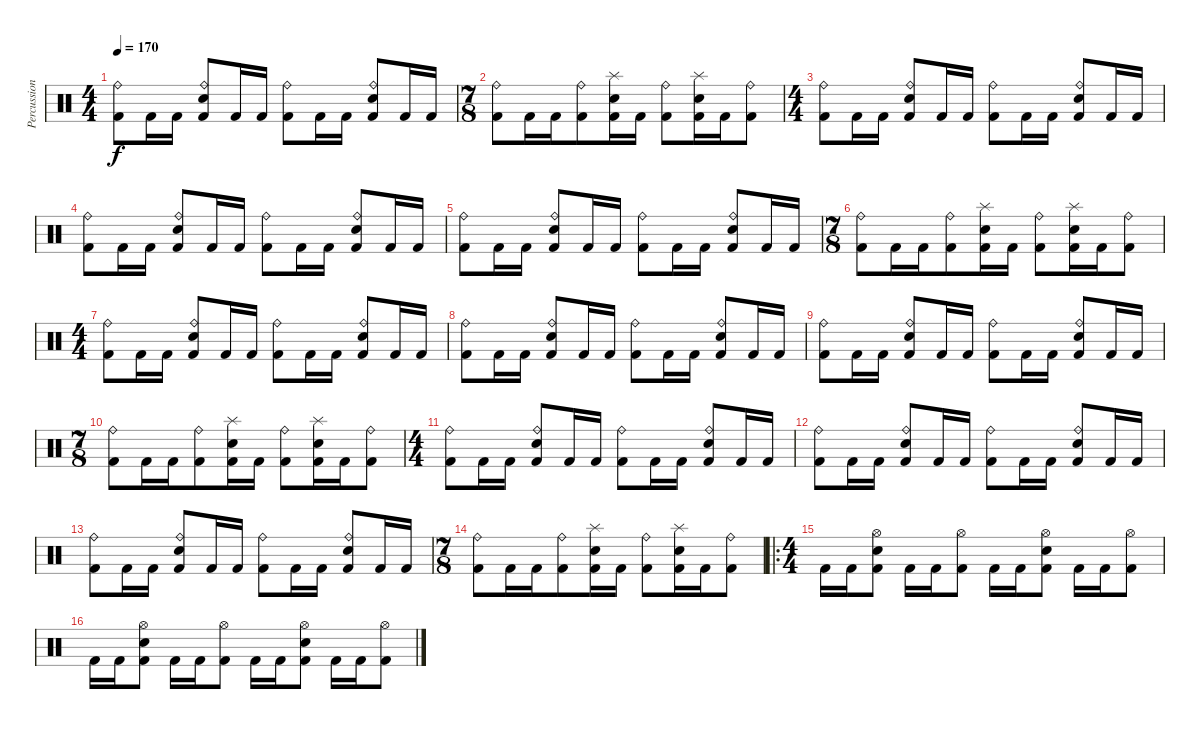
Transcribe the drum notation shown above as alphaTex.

\track ("Percussions" "Percussion") {instrument percussion}
\staff {score}
\articulation defaults
\ts (4 4)
\tempo 170
\clef neutral
\ks c
("Kick (hit) 2" "Ride (bell)").8{dy f} "Kick (hit) 2".16 "Kick (hit) 2".16 ("Kick (hit) 2" "Snare (hit) 2" "Ride (bell)").8 "Kick (hit) 2".16 "Kick (hit) 2".16 ("Kick (hit) 2" "Ride (bell)").8 "Kick (hit) 2".16 "Kick (hit) 2".16 ("Kick (hit) 2" "Snare (hit) 2" "Ride (bell)").8 "Kick (hit) 2".16 "Kick (hit) 2".16 |
\ts (7 8)
("Kick (hit) 2" "Ride (bell)").8 "Kick (hit) 2".16 "Kick (hit) 2".16 ("Kick (hit) 2" "Ride (bell)").8 ("Kick (hit) 2" "Snare (hit) 2" "Splash (hit)").16 "Kick (hit) 2".16 ("Kick (hit) 2" "Ride (bell)").8 ("Kick (hit) 2" "Snare (hit) 2" "Splash (hit)").16 "Kick (hit) 2".16 ("Kick (hit) 2" "Ride (bell)").8 |
\ts (4 4)
("Kick (hit) 2" "Ride (bell)").8 "Kick (hit) 2".16 "Kick (hit) 2".16 ("Kick (hit) 2" "Snare (hit) 2" "Ride (bell)").8 "Kick (hit) 2".16 "Kick (hit) 2".16 ("Kick (hit) 2" "Ride (bell)").8 "Kick (hit) 2".16 "Kick (hit) 2".16 ("Kick (hit) 2" "Snare (hit) 2" "Ride (bell)").8 "Kick (hit) 2".16 "Kick (hit) 2".16 |
("Kick (hit) 2" "Ride (bell)").8 "Kick (hit) 2".16 "Kick (hit) 2".16 ("Kick (hit) 2" "Snare (hit) 2" "Ride (bell)").8 "Kick (hit) 2".16 "Kick (hit) 2".16 ("Kick (hit) 2" "Ride (bell)").8 "Kick (hit) 2".16 "Kick (hit) 2".16 ("Kick (hit) 2" "Snare (hit) 2" "Ride (bell)").8 "Kick (hit) 2".16 "Kick (hit) 2".16 |
("Kick (hit) 2" "Ride (bell)").8 "Kick (hit) 2".16 "Kick (hit) 2".16 ("Kick (hit) 2" "Snare (hit) 2" "Ride (bell)").8 "Kick (hit) 2".16 "Kick (hit) 2".16 ("Kick (hit) 2" "Ride (bell)").8 "Kick (hit) 2".16 "Kick (hit) 2".16 ("Kick (hit) 2" "Snare (hit) 2" "Ride (bell)").8 "Kick (hit) 2".16 "Kick (hit) 2".16 |
\ts (7 8)
("Kick (hit) 2" "Ride (bell)").8 "Kick (hit) 2".16 "Kick (hit) 2".16 ("Kick (hit) 2" "Ride (bell)").8 ("Kick (hit) 2" "Snare (hit) 2" "Splash (hit)").16 "Kick (hit) 2".16 ("Kick (hit) 2" "Ride (bell)").8 ("Kick (hit) 2" "Snare (hit) 2" "Splash (hit)").16 "Kick (hit) 2".16 ("Kick (hit) 2" "Ride (bell)").8 |
\ts (4 4)
("Kick (hit) 2" "Ride (bell)").8 "Kick (hit) 2".16 "Kick (hit) 2".16 ("Kick (hit) 2" "Snare (hit) 2" "Ride (bell)").8 "Kick (hit) 2".16 "Kick (hit) 2".16 ("Kick (hit) 2" "Ride (bell)").8 "Kick (hit) 2".16 "Kick (hit) 2".16 ("Kick (hit) 2" "Snare (hit) 2" "Ride (bell)").8 "Kick (hit) 2".16 "Kick (hit) 2".16 |
("Kick (hit) 2" "Ride (bell)").8 "Kick (hit) 2".16 "Kick (hit) 2".16 ("Kick (hit) 2" "Snare (hit) 2" "Ride (bell)").8 "Kick (hit) 2".16 "Kick (hit) 2".16 ("Kick (hit) 2" "Ride (bell)").8 "Kick (hit) 2".16 "Kick (hit) 2".16 ("Kick (hit) 2" "Snare (hit) 2" "Ride (bell)").8 "Kick (hit) 2".16 "Kick (hit) 2".16 |
("Kick (hit) 2" "Ride (bell)").8 "Kick (hit) 2".16 "Kick (hit) 2".16 ("Kick (hit) 2" "Snare (hit) 2" "Ride (bell)").8 "Kick (hit) 2".16 "Kick (hit) 2".16 ("Kick (hit) 2" "Ride (bell)").8 "Kick (hit) 2".16 "Kick (hit) 2".16 ("Kick (hit) 2" "Snare (hit) 2" "Ride (bell)").8 "Kick (hit) 2".16 "Kick (hit) 2".16 |
\ts (7 8)
("Kick (hit) 2" "Ride (bell)").8 "Kick (hit) 2".16 "Kick (hit) 2".16 ("Kick (hit) 2" "Ride (bell)").8 ("Kick (hit) 2" "Snare (hit) 2" "Splash (hit)").16 "Kick (hit) 2".16 ("Kick (hit) 2" "Ride (bell)").8 ("Kick (hit) 2" "Snare (hit) 2" "Splash (hit)").16 "Kick (hit) 2".16 ("Kick (hit) 2" "Ride (bell)").8 |
\ts (4 4)
("Kick (hit) 2" "Ride (bell)").8 "Kick (hit) 2".16 "Kick (hit) 2".16 ("Kick (hit) 2" "Snare (hit) 2" "Ride (bell)").8 "Kick (hit) 2".16 "Kick (hit) 2".16 ("Kick (hit) 2" "Ride (bell)").8 "Kick (hit) 2".16 "Kick (hit) 2".16 ("Kick (hit) 2" "Snare (hit) 2" "Ride (bell)").8 "Kick (hit) 2".16 "Kick (hit) 2".16 |
("Kick (hit) 2" "Ride (bell)").8 "Kick (hit) 2".16 "Kick (hit) 2".16 ("Kick (hit) 2" "Snare (hit) 2" "Ride (bell)").8 "Kick (hit) 2".16 "Kick (hit) 2".16 ("Kick (hit) 2" "Ride (bell)").8 "Kick (hit) 2".16 "Kick (hit) 2".16 ("Kick (hit) 2" "Snare (hit) 2" "Ride (bell)").8 "Kick (hit) 2".16 "Kick (hit) 2".16 |
("Kick (hit) 2" "Ride (bell)").8 "Kick (hit) 2".16 "Kick (hit) 2".16 ("Kick (hit) 2" "Snare (hit) 2" "Ride (bell)").8 "Kick (hit) 2".16 "Kick (hit) 2".16 ("Kick (hit) 2" "Ride (bell)").8 "Kick (hit) 2".16 "Kick (hit) 2".16 ("Kick (hit) 2" "Snare (hit) 2" "Ride (bell)").8 "Kick (hit) 2".16 "Kick (hit) 2".16 |
\ts (7 8)
("Kick (hit) 2" "Ride (bell)").8 "Kick (hit) 2".16 "Kick (hit) 2".16 ("Kick (hit) 2" "Ride (bell)").8 ("Kick (hit) 2" "Snare (hit) 2" "Splash (hit)").16 "Kick (hit) 2".16 ("Kick (hit) 2" "Ride (bell)").8 ("Kick (hit) 2" "Snare (hit) 2" "Splash (hit)").16 "Kick (hit) 2".16 ("Kick (hit) 2" "Ride (bell)").8 |
\ro
\ts (4 4)
"Kick (hit) 2".16 "Kick (hit) 2".16 ("Kick (hit) 2" "Hi-Hat (open)" "Snare (hit) 2").8 "Kick (hit) 2".16 "Kick (hit) 2".16 ("Kick (hit) 2" "Hi-Hat (open)").8 "Kick (hit) 2".16 "Kick (hit) 2".16 ("Kick (hit) 2" "Hi-Hat (open)" "Snare (hit) 2").8 "Kick (hit) 2".16 "Kick (hit) 2".16 ("Kick (hit) 2" "Hi-Hat (open)").8 |
"Kick (hit) 2".16 "Kick (hit) 2".16 ("Kick (hit) 2" "Hi-Hat (open)" "Snare (hit) 2").8 "Kick (hit) 2".16 "Kick (hit) 2".16 ("Kick (hit) 2" "Hi-Hat (open)").8 "Kick (hit) 2".16 "Kick (hit) 2".16 ("Kick (hit) 2" "Hi-Hat (open)" "Snare (hit) 2").8 "Kick (hit) 2".16 "Kick (hit) 2".16 ("Kick (hit) 2" "Hi-Hat (open)").8
